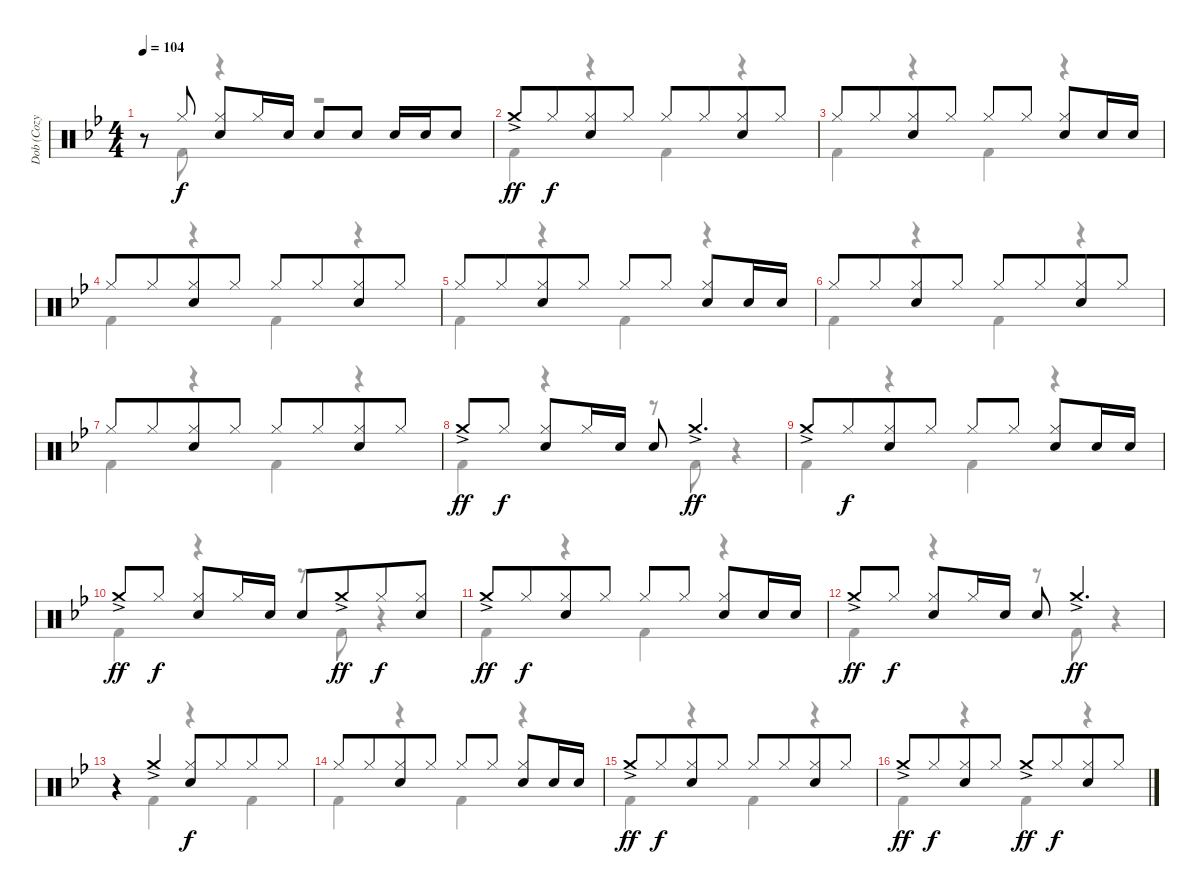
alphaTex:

\track ("Dob (Cozy Powell)" "Dob (Cozy ") {instrument percussion}
\staff {score}
\articulation defaults
\voice
\ts (4 4)
\tempo 104
\clef neutral
\ks bb
r.8{dy f} "Hi-Hat (closed)".8 ("Hi-Hat (closed)" "Electric Snare (hit)").8 "Hi-Hat (closed)".16 "Electric Snare (hit)".16 "Electric Snare (hit)".8 "Electric Snare (hit)".8 "Electric Snare (hit)".16 "Electric Snare (hit)".16 "Electric Snare (hit)".8 |
"Crash medium (hit)"{ac}.8{dy ff} "Hi-Hat (closed)".8{dy f beam merge} ("Hi-Hat (closed)" "Electric Snare (hit)").8 "Hi-Hat (closed)".8 "Hi-Hat (closed)".8 "Hi-Hat (closed)".8{beam merge} ("Hi-Hat (closed)" "Electric Snare (hit)").8 "Hi-Hat (closed)".8 |
"Hi-Hat (closed)".8 "Hi-Hat (closed)".8{beam merge} ("Hi-Hat (closed)" "Electric Snare (hit)").8 "Hi-Hat (closed)".8 "Hi-Hat (closed)".8 "Hi-Hat (closed)".8{beam split} ("Hi-Hat (closed)" "Electric Snare (hit)").8 "Electric Snare (hit)".16 "Electric Snare (hit)".16 |
"Hi-Hat (closed)".8 "Hi-Hat (closed)".8{beam merge} ("Hi-Hat (closed)" "Electric Snare (hit)").8 "Hi-Hat (closed)".8 "Hi-Hat (closed)".8 "Hi-Hat (closed)".8{beam merge} ("Hi-Hat (closed)" "Electric Snare (hit)").8 "Hi-Hat (closed)".8 |
"Hi-Hat (closed)".8 "Hi-Hat (closed)".8{beam merge} ("Hi-Hat (closed)" "Electric Snare (hit)").8 "Hi-Hat (closed)".8 "Hi-Hat (closed)".8 "Hi-Hat (closed)".8{beam split} ("Hi-Hat (closed)" "Electric Snare (hit)").8 "Electric Snare (hit)".16 "Electric Snare (hit)".16 |
"Hi-Hat (closed)".8 "Hi-Hat (closed)".8{beam merge} ("Hi-Hat (closed)" "Electric Snare (hit)").8 "Hi-Hat (closed)".8 "Hi-Hat (closed)".8 "Hi-Hat (closed)".8{beam merge} ("Hi-Hat (closed)" "Electric Snare (hit)").8 "Hi-Hat (closed)".8 |
"Hi-Hat (closed)".8 "Hi-Hat (closed)".8{beam merge} ("Hi-Hat (closed)" "Electric Snare (hit)").8 "Hi-Hat (closed)".8 "Hi-Hat (closed)".8 "Hi-Hat (closed)".8{beam merge} ("Hi-Hat (closed)" "Electric Snare (hit)").8 "Hi-Hat (closed)".8 |
"Crash medium (hit)"{ac}.8{dy ff} "Hi-Hat (closed)".8{dy f} ("Hi-Hat (closed)" "Electric Snare (hit)").8 "Hi-Hat (closed)".16 "Electric Snare (hit)".16 "Electric Snare (hit)".8 "Crash medium (hit)"{ac}.4{d dy ff} |
"Crash medium (hit)"{ac}.8 "Hi-Hat (closed)".8{dy f beam merge} ("Hi-Hat (closed)" "Electric Snare (hit)").8 "Hi-Hat (closed)".8 "Hi-Hat (closed)".8 "Hi-Hat (closed)".8 ("Hi-Hat (closed)" "Electric Snare (hit)").8 "Electric Snare (hit)".16 "Electric Snare (hit)".16 |
"Crash medium (hit)"{ac}.8{dy ff} "Hi-Hat (closed)".8{dy f} ("Hi-Hat (closed)" "Electric Snare (hit)").8 "Hi-Hat (closed)".16 "Electric Snare (hit)".16 "Electric Snare (hit)".8 "Crash medium (hit)"{ac}.8{dy ff beam merge} "Hi-Hat (closed)".8{dy f} ("Hi-Hat (closed)" "Electric Snare (hit)").8 |
"Crash medium (hit)"{ac}.8{dy ff} "Hi-Hat (closed)".8{dy f beam merge} ("Hi-Hat (closed)" "Electric Snare (hit)").8 "Hi-Hat (closed)".8 "Hi-Hat (closed)".8 "Hi-Hat (closed)".8 ("Hi-Hat (closed)" "Electric Snare (hit)").8 "Electric Snare (hit)".16 "Electric Snare (hit)".16 |
"Crash medium (hit)"{ac}.8{dy ff} "Hi-Hat (closed)".8{dy f} ("Hi-Hat (closed)" "Electric Snare (hit)").8 "Hi-Hat (closed)".16 "Electric Snare (hit)".16 "Electric Snare (hit)".8 "Crash medium (hit)"{ac}.4{d dy ff} |
r.4 "Crash medium (hit)"{ac}.4 ("Hi-Hat (closed)" "Electric Snare (hit)").8{dy f} "Hi-Hat (closed)".8{beam merge} "Hi-Hat (closed)".8 "Hi-Hat (closed)".8 |
"Hi-Hat (closed)".8 "Hi-Hat (closed)".8{beam merge} ("Hi-Hat (closed)" "Electric Snare (hit)").8 "Hi-Hat (closed)".8 "Hi-Hat (closed)".8 "Hi-Hat (closed)".8{beam split} ("Hi-Hat (closed)" "Electric Snare (hit)").8 "Electric Snare (hit)".16 "Electric Snare (hit)".16 |
"Crash medium (hit)"{ac}.8{dy ff} "Hi-Hat (closed)".8{dy f beam merge} ("Hi-Hat (closed)" "Electric Snare (hit)").8 "Hi-Hat (closed)".8 "Hi-Hat (closed)".8 "Hi-Hat (closed)".8{beam merge} ("Hi-Hat (closed)" "Electric Snare (hit)").8 "Hi-Hat (closed)".8 |
"Crash medium (hit)"{ac}.8{dy ff} "Hi-Hat (closed)".8{dy f beam merge} ("Hi-Hat (closed)" "Electric Snare (hit)").8 "Hi-Hat (closed)".8 "Crash medium (hit)"{ac}.8{dy ff} "Hi-Hat (closed)".8{dy f beam merge} ("Hi-Hat (closed)" "Electric Snare (hit)").8 "Hi-Hat (closed)".8
\voice
\clef neutral
\ottava regular
\simile none
\ks bb
r.8{dy f} "Kick (hit) 2".8 r.4 r.2 |
"Kick (hit) 2".4 r.4 "Kick (hit) 2".4 r.4 |
"Kick (hit) 2".4 r.4 "Kick (hit) 2".4 r.4 |
"Kick (hit) 2".4 r.4 "Kick (hit) 2".4 r.4 |
"Kick (hit) 2".4 r.4 "Kick (hit) 2".4 r.4 |
"Kick (hit) 2".4 r.4 "Kick (hit) 2".4 r.4 |
"Kick (hit) 2".4 r.4 "Kick (hit) 2".4 r.4 |
"Kick (hit) 2".4 r.4 r.8 "Kick (hit) 2".8 r.4 |
"Kick (hit) 2".4 r.4 "Kick (hit) 2".4 r.4 |
"Kick (hit) 2".4 r.4 r.8 "Kick (hit) 2".8 r.4 |
"Kick (hit) 2".4 r.4 "Kick (hit) 2".4 r.4 |
"Kick (hit) 2".4 r.4 r.8 "Kick (hit) 2".8 r.4 |
r.4 "Kick (hit) 2".4 r.4 "Kick (hit) 2".4 |
"Kick (hit) 2".4 r.4 "Kick (hit) 2".4 r.4 |
"Kick (hit) 2".4 r.4 "Kick (hit) 2".4 r.4 |
"Kick (hit) 2".4 r.4 "Kick (hit) 2".4 r.4
